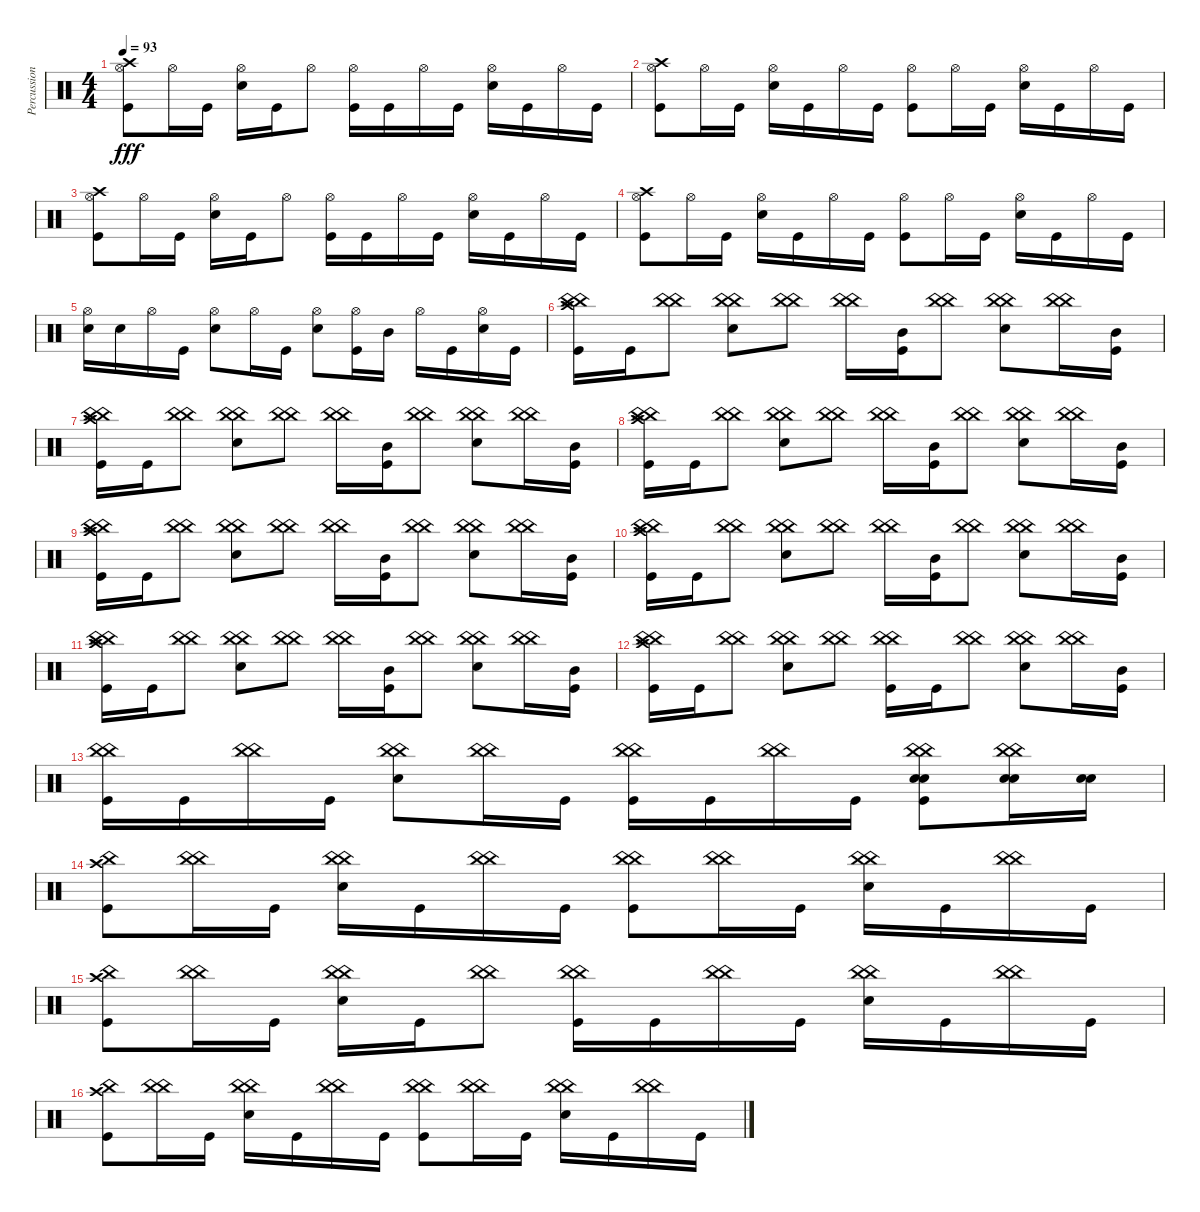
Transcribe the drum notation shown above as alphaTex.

\track ("Percussion" "Percussion") {instrument percussion}
\staff {score}
\articulation defaults
\ts (4 4)
\tempo 93
\clef neutral
\ks c
("Hi-Hat (open)" "Crash high (hit)" "Kick (hit)").8{dy fff} "Hi-Hat (open)".16 "Kick (hit)".16 ("Hi-Hat (open)" "Snare (hit) 2").16 "Kick (hit)".16 "Hi-Hat (open)".8 ("Hi-Hat (open)" "Kick (hit)").16 "Kick (hit)".16 "Hi-Hat (open)".16 "Kick (hit)".16 ("Hi-Hat (open)" "Snare (hit) 2").16 "Kick (hit)".16 "Hi-Hat (open)".16 "Kick (hit)".16 |
("Hi-Hat (open)" "Crash high (hit)" "Kick (hit)").8 "Hi-Hat (open)".16 "Kick (hit)".16 ("Hi-Hat (open)" "Snare (hit) 2").16 "Kick (hit)".16 "Hi-Hat (open)".16 "Kick (hit)".16 ("Hi-Hat (open)" "Kick (hit)").8 "Hi-Hat (open)".16 "Kick (hit)".16 ("Hi-Hat (open)" "Snare (hit) 2").16 "Kick (hit)".16 "Hi-Hat (open)".16 "Kick (hit)".16 |
("Hi-Hat (open)" "Crash high (hit)" "Kick (hit)").8 "Hi-Hat (open)".16 "Kick (hit)".16 ("Hi-Hat (open)" "Snare (hit) 2").16 "Kick (hit)".16 "Hi-Hat (open)".8 ("Hi-Hat (open)" "Kick (hit)").16 "Kick (hit)".16 "Hi-Hat (open)".16 "Kick (hit)".16 ("Hi-Hat (open)" "Snare (hit) 2").16 "Kick (hit)".16 "Hi-Hat (open)".16 "Kick (hit)".16 |
("Hi-Hat (open)" "Crash high (hit)" "Kick (hit)").8 "Hi-Hat (open)".16 "Kick (hit)".16 ("Hi-Hat (open)" "Snare (hit) 2").16 "Kick (hit)".16 "Hi-Hat (open)".16 "Kick (hit)".16 ("Hi-Hat (open)" "Kick (hit)").8 "Hi-Hat (open)".16 "Kick (hit)".16 ("Hi-Hat (open)" "Snare (hit) 2").16 "Kick (hit)".16 "Hi-Hat (open)".16 "Kick (hit)".16 |
("Hi-Hat (open)" "Snare (hit) 2").16 "Snare (hit) 2".16 "Hi-Hat (open)".16 "Kick (hit)".16 ("Hi-Hat (open)" "Snare (hit) 2").8 "Hi-Hat (open)".16 "Kick (hit)".16 ("Hi-Hat (open)" "Snare (hit) 2").8 ("Hi-Hat (open)" "Kick (hit)").16 "Mid Tom (hit)".16 "Hi-Hat (open)".16 "Kick (hit)".16 ("Hi-Hat (open)" "Snare (hit) 2").16 "Kick (hit)".16 |
("China (hit)" "Crash high (hit)" "China (hit)" "Kick (hit)").16 "Kick (hit)".16 ("China (hit)" "China (hit)").8 ("China (hit)" "China (hit)" "Snare (hit) 2").8 ("China (hit)" "China (hit)").8 ("China (hit)" "China (hit)").16 ("Mid Tom (hit)" "Kick (hit)").16 ("China (hit)" "China (hit)").8 ("China (hit)" "China (hit)" "Snare (hit) 2").8 ("China (hit)" "China (hit)").16 ("Mid Tom (hit)" "Kick (hit)").16 |
("China (hit)" "Crash high (hit)" "China (hit)" "Kick (hit)").16 "Kick (hit)".16 ("China (hit)" "China (hit)").8 ("China (hit)" "China (hit)" "Snare (hit) 2").8 ("China (hit)" "China (hit)").8 ("China (hit)" "China (hit)").16 ("Mid Tom (hit)" "Kick (hit)").16 ("China (hit)" "China (hit)").8 ("China (hit)" "China (hit)" "Snare (hit) 2").8 ("China (hit)" "China (hit)").16 ("Mid Tom (hit)" "Kick (hit)").16 |
("China (hit)" "Crash high (hit)" "China (hit)" "Kick (hit)").16 "Kick (hit)".16 ("China (hit)" "China (hit)").8 ("China (hit)" "China (hit)" "Snare (hit) 2").8 ("China (hit)" "China (hit)").8 ("China (hit)" "China (hit)").16 ("Mid Tom (hit)" "Kick (hit)").16 ("China (hit)" "China (hit)").8 ("China (hit)" "China (hit)" "Snare (hit) 2").8 ("China (hit)" "China (hit)").16 ("Mid Tom (hit)" "Kick (hit)").16 |
("China (hit)" "Crash high (hit)" "China (hit)" "Kick (hit)").16 "Kick (hit)".16 ("China (hit)" "China (hit)").8 ("China (hit)" "China (hit)" "Snare (hit) 2").8 ("China (hit)" "China (hit)").8 ("China (hit)" "China (hit)").16 ("Mid Tom (hit)" "Kick (hit)").16 ("China (hit)" "China (hit)").8 ("China (hit)" "China (hit)" "Snare (hit) 2").8 ("China (hit)" "China (hit)").16 ("Mid Tom (hit)" "Kick (hit)").16 |
("China (hit)" "Crash high (hit)" "China (hit)" "Kick (hit)").16 "Kick (hit)".16 ("China (hit)" "China (hit)").8 ("China (hit)" "China (hit)" "Snare (hit) 2").8 ("China (hit)" "China (hit)").8 ("China (hit)" "China (hit)").16 ("Mid Tom (hit)" "Kick (hit)").16 ("China (hit)" "China (hit)").8 ("China (hit)" "China (hit)" "Snare (hit) 2").8 ("China (hit)" "China (hit)").16 ("Mid Tom (hit)" "Kick (hit)").16 |
("China (hit)" "Crash high (hit)" "China (hit)" "Kick (hit)").16 "Kick (hit)".16 ("China (hit)" "China (hit)").8 ("China (hit)" "China (hit)" "Snare (hit) 2").8 ("China (hit)" "China (hit)").8 ("China (hit)" "China (hit)").16 ("Mid Tom (hit)" "Kick (hit)").16 ("China (hit)" "China (hit)").8 ("China (hit)" "China (hit)" "Snare (hit) 2").8 ("China (hit)" "China (hit)").16 ("Mid Tom (hit)" "Kick (hit)").16 |
("China (hit)" "Crash high (hit)" "China (hit)" "Kick (hit)").16 "Kick (hit)".16 ("China (hit)" "China (hit)").8 ("China (hit)" "China (hit)" "Snare (hit) 2").8 ("China (hit)" "China (hit)").8 ("China (hit)" "China (hit)" "Kick (hit)").16 "Kick (hit)".16 ("China (hit)" "China (hit)").8 ("China (hit)" "China (hit)" "Snare (hit) 2").8 ("China (hit)" "China (hit)").16 ("Mid Tom (hit)" "Kick (hit)").16 |
("China (hit)" "China (hit)" "Kick (hit)").16 "Kick (hit)".16 ("China (hit)" "China (hit)").16 "Kick (hit)".16 ("China (hit)" "China (hit)" "Snare (hit) 2").8 ("China (hit)" "China (hit)").16 "Kick (hit)".16 ("China (hit)" "China (hit)" "Kick (hit)").16 "Kick (hit)".16 ("China (hit)" "China (hit)").16 "Kick (hit)".16 ("China (hit)" "China (hit)" "Snare (hit) 2" "Snare (hit) 2" "Kick (hit)").8 ("China (hit)" "China (hit)" "Snare (hit) 2" "Snare (hit) 2").16 ("Snare (hit) 2" "Snare (hit) 2").16 |
("China (hit)" "Crash high (hit)" "Kick (hit)").8 ("China (hit)" "China (hit)").16 "Kick (hit)".16 ("China (hit)" "China (hit)" "Snare (hit) 2").16 "Kick (hit)".16 ("China (hit)" "China (hit)").16 "Kick (hit)".16 ("China (hit)" "China (hit)" "Kick (hit)").8 ("China (hit)" "China (hit)").16 "Kick (hit)".16 ("China (hit)" "China (hit)" "Snare (hit) 2").16 "Kick (hit)".16 ("China (hit)" "China (hit)").16 "Kick (hit)".16 |
("China (hit)" "Crash high (hit)" "Kick (hit)").8 ("China (hit)" "China (hit)").16 "Kick (hit)".16 ("China (hit)" "China (hit)" "Snare (hit) 2").16 "Kick (hit)".16 ("China (hit)" "China (hit)").8 ("China (hit)" "China (hit)" "Kick (hit)").16 "Kick (hit)".16 ("China (hit)" "China (hit)").16 "Kick (hit)".16 ("China (hit)" "China (hit)" "Snare (hit) 2").16 "Kick (hit)".16 ("China (hit)" "China (hit)").16 "Kick (hit)".16 |
("China (hit)" "Crash high (hit)" "Kick (hit)").8 ("China (hit)" "China (hit)").16 "Kick (hit)".16 ("China (hit)" "China (hit)" "Snare (hit) 2").16 "Kick (hit)".16 ("China (hit)" "China (hit)").16 "Kick (hit)".16 ("China (hit)" "China (hit)" "Kick (hit)").8 ("China (hit)" "China (hit)").16 "Kick (hit)".16 ("China (hit)" "China (hit)" "Snare (hit) 2").16 "Kick (hit)".16 ("China (hit)" "China (hit)").16 "Kick (hit)".16
